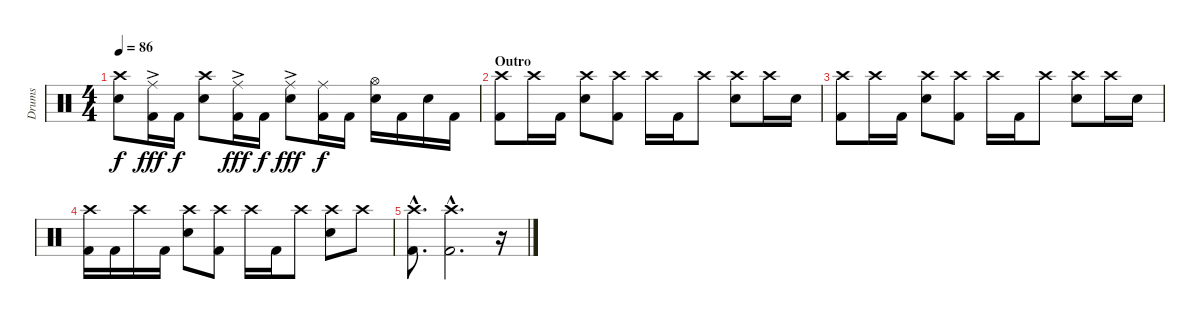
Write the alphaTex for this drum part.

\track ("Drums" "Drums") {instrument percussion}
\staff {score}
\articulation defaults
\ts (4 4)
\tempo 86
\clef neutral
\ks c
("Crash high (hit)" "Electric Snare (hit)").8{dy f} ("Ride (middle)"{ac} "Kick (hit) 2").16{dy fff} "Kick (hit) 2".16{dy f} ("Crash high (hit)" "Electric Snare (hit)").8 ("Ride (middle)"{ac} "Kick (hit) 2").16{dy fff} "Kick (hit) 2".16{dy f} ("Ride (middle)"{ac} "Electric Snare (hit)").8{dy fff} ("Ride (middle)" "Kick (hit) 2").16{dy f} "Kick (hit) 2".16 ("Hi-Hat (open)" "Electric Snare (hit)").16 "Kick (hit) 2".16 "Electric Snare (hit)".16 "Kick (hit) 2".16 |
\section ("" "Outro")
("Crash high (hit)" "Kick (hit) 2").8 "Crash high (hit)".16 "Kick (hit) 2".16 ("Crash high (hit)" "Electric Snare (hit)").8 ("Crash high (hit)" "Kick (hit) 2").8 "Crash high (hit)".16 "Kick (hit) 2".16 "Crash high (hit)".8 ("Crash high (hit)" "Electric Snare (hit)").8 "Crash high (hit)".16 "Electric Snare (hit)".16 |
("Crash high (hit)" "Kick (hit) 2").8 "Crash high (hit)".16 "Kick (hit) 2".16 ("Crash high (hit)" "Electric Snare (hit)").8 ("Crash high (hit)" "Kick (hit) 2").8 "Crash high (hit)".16 "Kick (hit) 2".16 "Crash high (hit)".8 ("Crash high (hit)" "Electric Snare (hit)").8 "Crash high (hit)".16 "Electric Snare (hit)".16 |
("Crash high (hit)" "Kick (hit) 2").16 "Kick (hit) 2".16 "Crash high (hit)".16 "Kick (hit) 2".16 ("Crash high (hit)" "Electric Snare (hit)").8 ("Crash high (hit)" "Kick (hit) 2").8 "Crash high (hit)".16 "Kick (hit) 2".16 "Crash high (hit)".8 ("Crash high (hit)" "Electric Snare (hit)").8 "Crash high (hit)".8 |
("Crash high (hit)"{hac} "Kick (hit) 2"{hac}).8{d} ("Crash high (hit)"{hac} "Kick (hit) 2"{hac}).2{d} r.16
